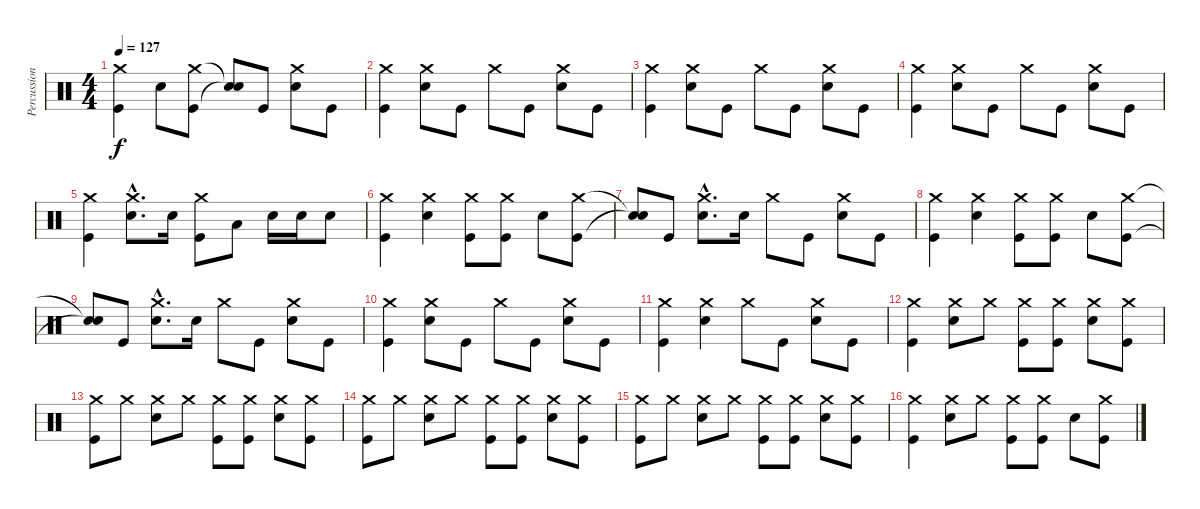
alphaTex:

\track ("Percussion" "Percussion") {instrument percussion}
\staff {score}
\articulation defaults
\ts (4 4)
\tempo 127
\clef neutral
\ks c
("Crash medium (hit)" "Kick (hit)").4{dy f} "Snare (hit) 2".8 ("Crash medium (hit)" "Kick (hit)").8 ("Snare (hit)"{t} "Snare (hit)"{t}).8 "Kick (hit)".8 ("Crash medium (hit)" "Snare (hit) 2").8 "Kick (hit)".8 |
("Crash medium (hit)" "Kick (hit)").4 ("Crash medium (hit)" "Snare (hit) 2").8 "Kick (hit)".8 "Crash medium (hit)".8 "Kick (hit)".8 ("Crash medium (hit)" "Snare (hit) 2").8 "Kick (hit)".8 |
("Crash medium (hit)" "Kick (hit)").4 ("Crash medium (hit)" "Snare (hit) 2").8 "Kick (hit)".8 "Crash medium (hit)".8 "Kick (hit)".8 ("Crash medium (hit)" "Snare (hit) 2").8 "Kick (hit)".8 |
("Crash medium (hit)" "Kick (hit)").4 ("Crash medium (hit)" "Snare (hit) 2").8 "Kick (hit)".8 "Crash medium (hit)".8 "Kick (hit)".8 ("Crash medium (hit)" "Snare (hit) 2").8 "Kick (hit)".8 |
("Crash medium (hit)" "Kick (hit)").4 ("Crash medium (hit)"{hac} "Snare (hit) 2"{hac}).8{d} "Snare (hit) 2".16 ("Crash medium (hit)" "Kick (hit)").8 "Low Tom (hit)".8 "Snare (hit) 2".16 "Snare (hit) 2".16 "Snare (hit) 2".8 |
("Crash medium (hit)" "Kick (hit)").4 ("Crash medium (hit)" "Snare (hit) 2").4 ("Crash medium (hit)" "Kick (hit)").8 ("Crash medium (hit)" "Kick (hit)").8 "Snare (hit) 2".8 ("Crash medium (hit)" "Kick (hit)").8 |
("Snare (hit)"{t} "Snare (hit)"{t}).8 "Kick (hit)".8 ("Crash medium (hit)"{hac} "Snare (hit) 2"{hac}).8{d} "Snare (hit) 2".16 "Crash medium (hit)".8 "Kick (hit)".8 ("Crash medium (hit)" "Snare (hit) 2").8 "Kick (hit)".8 |
("Crash medium (hit)" "Kick (hit)").4 ("Crash medium (hit)" "Snare (hit) 2").4 ("Crash medium (hit)" "Kick (hit)").8 ("Crash medium (hit)" "Kick (hit)").8 "Snare (hit) 2".8 ("Crash medium (hit)" "Kick (hit)").8 |
("Snare (hit)"{t} "Snare (hit)"{t}).8 "Kick (hit)".8 ("Crash medium (hit)"{hac} "Snare (hit) 2"{hac}).8{d} "Snare (hit) 2".16 "Crash medium (hit)".8 "Kick (hit)".8 ("Crash medium (hit)" "Snare (hit) 2").8 "Kick (hit)".8 |
("Crash medium (hit)" "Kick (hit)").4 ("Crash medium (hit)" "Snare (hit) 2").8 "Kick (hit)".8 "Crash medium (hit)".8 "Kick (hit)".8 ("Crash medium (hit)" "Snare (hit) 2").8 "Kick (hit)".8 |
("Crash medium (hit)" "Kick (hit)").4 ("Crash medium (hit)" "Snare (hit) 2").4 "Crash medium (hit)".8 "Kick (hit)".8 ("Crash medium (hit)" "Snare (hit) 2").8 "Kick (hit)".8 |
("Crash medium (hit)" "Kick (hit)").4 ("Crash medium (hit)" "Snare (hit) 2").8 "Crash medium (hit)".8 ("Crash medium (hit)" "Kick (hit)").8 ("Crash medium (hit)" "Kick (hit)").8 ("Crash medium (hit)" "Snare (hit) 2").8 ("Crash medium (hit)" "Kick (hit)").8 |
("Crash medium (hit)" "Kick (hit)").8 "Crash medium (hit)".8 ("Crash medium (hit)" "Snare (hit) 2").8 "Crash medium (hit)".8 ("Crash medium (hit)" "Kick (hit)").8 ("Crash medium (hit)" "Kick (hit)").8 ("Crash medium (hit)" "Snare (hit) 2").8 ("Crash medium (hit)" "Kick (hit)").8 |
("Crash medium (hit)" "Kick (hit)").8 "Crash medium (hit)".8 ("Crash medium (hit)" "Snare (hit) 2").8 "Crash medium (hit)".8 ("Crash medium (hit)" "Kick (hit)").8 ("Crash medium (hit)" "Kick (hit)").8 ("Crash medium (hit)" "Snare (hit) 2").8 ("Crash medium (hit)" "Kick (hit)").8 |
("Crash medium (hit)" "Kick (hit)").8 "Crash medium (hit)".8 ("Crash medium (hit)" "Snare (hit) 2").8 "Crash medium (hit)".8 ("Crash medium (hit)" "Kick (hit)").8 ("Crash medium (hit)" "Kick (hit)").8 ("Crash medium (hit)" "Snare (hit) 2").8 ("Crash medium (hit)" "Kick (hit)").8 |
("Crash medium (hit)" "Kick (hit)").4 ("Crash medium (hit)" "Snare (hit) 2").8 "Crash medium (hit)".8 ("Crash medium (hit)" "Kick (hit)").8 ("Crash medium (hit)" "Kick (hit)").8 "Snare (hit) 2".8 ("Crash medium (hit)" "Kick (hit)").8
